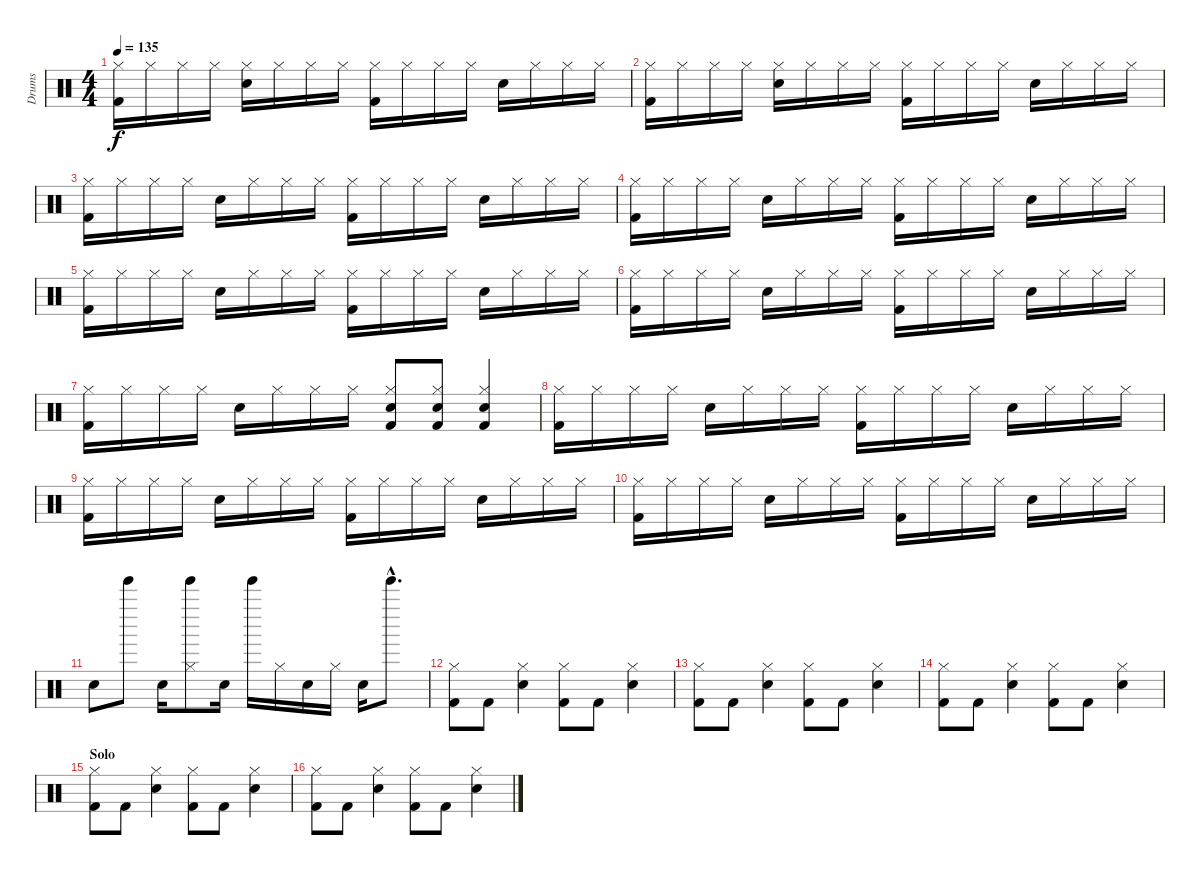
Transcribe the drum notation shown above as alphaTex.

\track ("Drums" "Drums") {instrument percussion}
\staff {score}
\articulation defaults
\ts (4 4)
\tempo 135
\clef neutral
\ks c
("Kick (hit) 2" "Hi-Hat (closed)").16{dy f} "Hi-Hat (closed)".16 "Hi-Hat (closed)".16 "Hi-Hat (closed)".16 ("Electric Snare (hit)" "Hi-Hat (closed)").16 "Hi-Hat (closed)".16 "Hi-Hat (closed)".16 "Hi-Hat (closed)".16 ("Kick (hit) 2" "Hi-Hat (closed)").16 "Hi-Hat (closed)".16 "Hi-Hat (closed)".16 "Hi-Hat (closed)".16 "Electric Snare (hit)".16 "Hi-Hat (closed)".16 "Hi-Hat (closed)".16 "Hi-Hat (closed)".16 |
("Kick (hit) 2" "Hi-Hat (closed)").16 "Hi-Hat (closed)".16 "Hi-Hat (closed)".16 "Hi-Hat (closed)".16 ("Electric Snare (hit)" "Hi-Hat (closed)").16 "Hi-Hat (closed)".16 "Hi-Hat (closed)".16 "Hi-Hat (closed)".16 ("Kick (hit) 2" "Hi-Hat (closed)").16 "Hi-Hat (closed)".16 "Hi-Hat (closed)".16 "Hi-Hat (closed)".16 "Electric Snare (hit)".16 "Hi-Hat (closed)".16 "Hi-Hat (closed)".16 "Hi-Hat (closed)".16 |
("Kick (hit) 2" "Hi-Hat (closed)").16 "Hi-Hat (closed)".16 "Hi-Hat (closed)".16 "Hi-Hat (closed)".16 "Electric Snare (hit)".16 "Hi-Hat (closed)".16 "Hi-Hat (closed)".16 "Hi-Hat (closed)".16 ("Kick (hit) 2" "Hi-Hat (closed)").16 "Hi-Hat (closed)".16 "Hi-Hat (closed)".16 "Hi-Hat (closed)".16 "Electric Snare (hit)".16 "Hi-Hat (closed)".16 "Hi-Hat (closed)".16 "Hi-Hat (closed)".16 |
("Kick (hit) 2" "Hi-Hat (closed)").16 "Hi-Hat (closed)".16 "Hi-Hat (closed)".16 "Hi-Hat (closed)".16 "Electric Snare (hit)".16 "Hi-Hat (closed)".16 "Hi-Hat (closed)".16 "Hi-Hat (closed)".16 ("Kick (hit) 2" "Hi-Hat (closed)").16 "Hi-Hat (closed)".16 "Hi-Hat (closed)".16 "Hi-Hat (closed)".16 "Electric Snare (hit)".16 "Hi-Hat (closed)".16 "Hi-Hat (closed)".16 "Hi-Hat (closed)".16 |
("Kick (hit) 2" "Hi-Hat (closed)").16 "Hi-Hat (closed)".16 "Hi-Hat (closed)".16 "Hi-Hat (closed)".16 "Electric Snare (hit)".16 "Hi-Hat (closed)".16 "Hi-Hat (closed)".16 "Hi-Hat (closed)".16 ("Kick (hit) 2" "Hi-Hat (closed)").16 "Hi-Hat (closed)".16 "Hi-Hat (closed)".16 "Hi-Hat (closed)".16 "Electric Snare (hit)".16 "Hi-Hat (closed)".16 "Hi-Hat (closed)".16 "Hi-Hat (closed)".16 |
("Kick (hit) 2" "Hi-Hat (closed)").16 "Hi-Hat (closed)".16 "Hi-Hat (closed)".16 "Hi-Hat (closed)".16 "Electric Snare (hit)".16 "Hi-Hat (closed)".16 "Hi-Hat (closed)".16 "Hi-Hat (closed)".16 ("Kick (hit) 2" "Hi-Hat (closed)").16 "Hi-Hat (closed)".16 "Hi-Hat (closed)".16 "Hi-Hat (closed)".16 "Electric Snare (hit)".16 "Hi-Hat (closed)".16 "Hi-Hat (closed)".16 "Hi-Hat (closed)".16 |
("Kick (hit) 2" "Hi-Hat (closed)").16 "Hi-Hat (closed)".16 "Hi-Hat (closed)".16 "Hi-Hat (closed)".16 "Electric Snare (hit)".16 "Hi-Hat (closed)".16 "Hi-Hat (closed)".16 "Hi-Hat (closed)".16 ("Electric Snare (hit)" "Kick (hit) 2" "Hi-Hat (closed)").8 ("Electric Snare (hit)" "Kick (hit) 2" "Hi-Hat (closed)").8 ("Electric Snare (hit)" "Kick (hit) 2" "Hi-Hat (closed)").4 |
("Kick (hit) 2" "Hi-Hat (closed)").16{volume 12} "Hi-Hat (closed)".16 "Hi-Hat (closed)".16 "Hi-Hat (closed)".16 "Electric Snare (hit)".16 "Hi-Hat (closed)".16 "Hi-Hat (closed)".16 "Hi-Hat (closed)".16 ("Kick (hit) 2" "Hi-Hat (closed)").16 "Hi-Hat (closed)".16 "Hi-Hat (closed)".16 "Hi-Hat (closed)".16 "Electric Snare (hit)".16 "Hi-Hat (closed)".16 "Hi-Hat (closed)".16 "Hi-Hat (closed)".16 |
("Kick (hit) 2" "Hi-Hat (closed)").16 "Hi-Hat (closed)".16 "Hi-Hat (closed)".16 "Hi-Hat (closed)".16 "Electric Snare (hit)".16 "Hi-Hat (closed)".16 "Hi-Hat (closed)".16 "Hi-Hat (closed)".16 ("Kick (hit) 2" "Hi-Hat (closed)").16 "Hi-Hat (closed)".16 "Hi-Hat (closed)".16 "Hi-Hat (closed)".16 "Electric Snare (hit)".16 "Hi-Hat (closed)".16 "Hi-Hat (closed)".16 "Hi-Hat (closed)".16 |
("Kick (hit) 2" "Hi-Hat (closed)").16 "Hi-Hat (closed)".16 "Hi-Hat (closed)".16 "Hi-Hat (closed)".16 "Electric Snare (hit)".16 "Hi-Hat (closed)".16 "Hi-Hat (closed)".16 "Hi-Hat (closed)".16 ("Kick (hit) 2" "Hi-Hat (closed)").16 "Hi-Hat (closed)".16 "Hi-Hat (closed)".16 "Hi-Hat (closed)".16 "Electric Snare (hit)".16 "Hi-Hat (closed)".16 "Hi-Hat (closed)".16 "Hi-Hat (closed)".16 |
"Snare (hit) 2".8{volume 12 balance 8} "Tinkle Bell (hit)".8 "Snare (hit) 2".16 ("Hi-Hat (closed)" "Tinkle Bell (hit)").8 "Snare (hit) 2".16 "Tinkle Bell (hit)".16 "Hi-Hat (closed)".16 "Snare (hit) 2".16 "Hi-Hat (closed)".16 "Snare (hit) 2".16 "Tinkle Bell (hit)"{hac}.8{d} |
("Kick (hit) 2" "Hi-Hat (closed)").8 "Kick (hit) 2".8 ("Electric Snare (hit)" "Hi-Hat (closed)").4 ("Kick (hit) 2" "Hi-Hat (closed)").8 "Kick (hit) 2".8 ("Electric Snare (hit)" "Hi-Hat (closed)").4 |
("Kick (hit) 2" "Hi-Hat (closed)").8 "Kick (hit) 2".8 ("Electric Snare (hit)" "Hi-Hat (closed)").4 ("Kick (hit) 2" "Hi-Hat (closed)").8 "Kick (hit) 2".8 ("Electric Snare (hit)" "Hi-Hat (closed)").4 |
("Kick (hit) 2" "Hi-Hat (closed)").8 "Kick (hit) 2".8 ("Electric Snare (hit)" "Hi-Hat (closed)").4 ("Kick (hit) 2" "Hi-Hat (closed)").8 "Kick (hit) 2".8 ("Electric Snare (hit)" "Hi-Hat (closed)").4 |
\section ("" "Solo")
("Kick (hit) 2" "Hi-Hat (closed)").8 "Kick (hit) 2".8 ("Electric Snare (hit)" "Hi-Hat (closed)").4 ("Kick (hit) 2" "Hi-Hat (closed)").8 "Kick (hit) 2".8 ("Electric Snare (hit)" "Hi-Hat (closed)").4 |
("Kick (hit) 2" "Hi-Hat (closed)").8 "Kick (hit) 2".8 ("Electric Snare (hit)" "Hi-Hat (closed)").4 ("Kick (hit) 2" "Hi-Hat (closed)").8 "Kick (hit) 2".8 ("Electric Snare (hit)" "Hi-Hat (closed)").4
